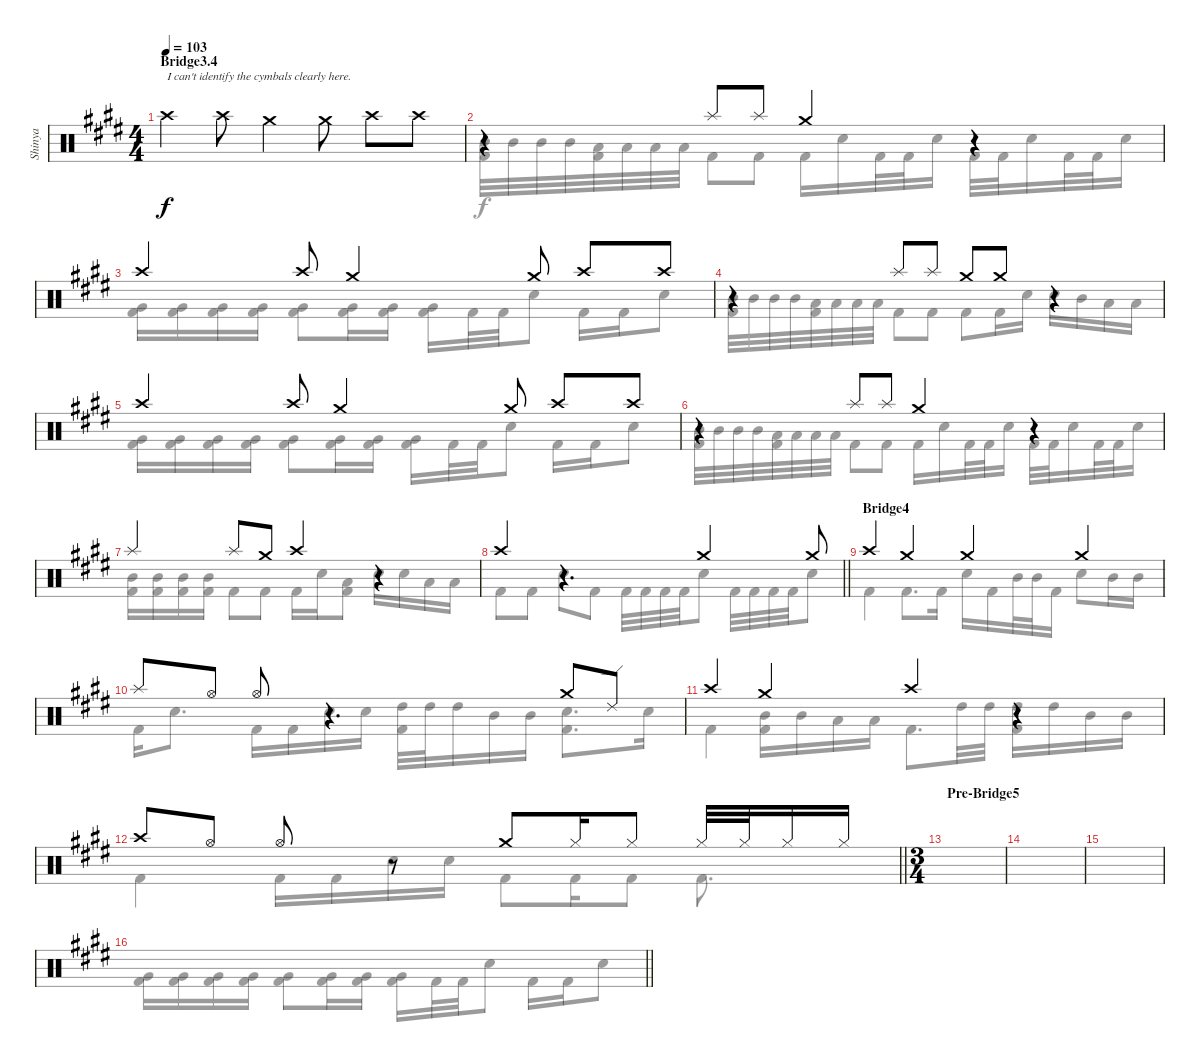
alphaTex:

\track ("Shinya" "Shinya") {instrument percussion}
\staff {score}
\articulation defaults
\voice
\ts (4 4)
\section ("" "Bridge3.4")
\tempo 103
\clef neutral
\ks c#minor "Crash high (hit)".4{txt "I can't identify the cymbals clearly here." dy f} "Crash high (hit)".8 "Crash medium (hit)".4 "Crash medium (hit)".8 "Crash high (hit)".8 "Crash high (hit)".8
|
r.4 "Splash (hit)".8 "Splash (hit)".8 "Crash medium (hit)".4 r.4 |
"Crash high (hit)".4 "Crash high (hit)".8 "Crash medium (hit)".4 "Crash medium (hit)".8 "Crash high (hit)".8 "Crash high (hit)".8 |
r.4 "Splash (hit)".8 "Splash (hit)".8 "Crash medium (hit)".8 "Crash medium (hit)".8 r.4 |
"Crash high (hit)".4 "Crash high (hit)".8 "Crash medium (hit)".4 "Crash medium (hit)".8 "Crash high (hit)".8 "Crash high (hit)".8 |
r.4 "Splash (hit)".8 "Splash (hit)".8 "Crash medium (hit)".4 r.4 |
"Splash (hit)".4 "Splash (hit)".8 "Crash medium (hit)".8 "Crash high (hit)".4 r.4 |
\barLineRight lightlight "Crash high (hit)".4
r.4{d} "Crash medium (hit)".4 "Crash medium (hit)".8 |
\section ("" "Bridge4")
"Crash high (hit)".4 "Crash medium (hit)".4 "Crash medium (hit)".4 "Crash medium (hit)".4 |
"Splash (hit)".8 "Hi-Hat (open)".8 "Hi-Hat (open)".8 r.4{d} "Crash medium (hit)".8 "Ride (edge) 2".8 |
"Crash high (hit)".4 "Crash medium (hit)".4 "Crash high (hit)".4 r.4 |
\barLineRight lightlight "Crash high (hit)".8 "Hi-Hat (open)".8 "Hi-Hat (open)".8
r.8 "Crash medium (hit)".8 "Hi-Hat (closed)".16 "Hi-Hat (closed)".8 "Hi-Hat (closed)".32 "Hi-Hat (closed)".32 "Hi-Hat (closed)".16 "Hi-Hat (closed)".16 |
\ts (3 4)
\section ("" "Pre-Bridge5")
|
|
|
\barLineRight lightlight
\voice
\clef neutral
\ottava regular
\simile none
\ks c#minor
("Very Low Tom (hit)" "Kick (hit) 2").16{dy f} ("Very Low Tom (hit)" "Kick (hit) 2").16 ("Very Low Tom (hit)" "Kick (hit) 2").16 ("Very Low Tom (hit)" "Kick (hit) 2").16 ("Very Low Tom (hit)" "Kick (hit) 2").8 ("Very Low Tom (hit)" "Kick (hit) 2").16 ("Very Low Tom (hit)" "Kick (hit) 2").16 ("Very Low Tom (hit)" "Kick (hit) 2").16 "Kick (hit) 2".32 "Kick (hit) 2".32 "Snare (hit) 2".8 "Kick (hit) 2".16 "Kick (hit) 2".16 "Snare (hit) 2".8 |
("Mid Tom (hit)" "Kick (hit) 2").32 "Mid Tom (hit)".32 "Mid Tom (hit)".32 "Mid Tom (hit)".32 ("Low Tom (hit)" "Kick (hit) 2").32 "Low Tom (hit)".32 "Low Tom (hit)".32 "Low Tom (hit)".32 "Kick (hit) 2".8 "Kick (hit) 2".8 "Kick (hit) 2".16 "Snare (hit) 2".16 "Kick (hit) 2".32 "Kick (hit) 2".32 "Snare (hit) 2".16 "Kick (hit) 2".32 "Kick (hit) 2".32 "Snare (hit) 2".16 "Kick (hit) 2".32 "Kick (hit) 2".32 "Snare (hit) 2".16 |
("Very Low Tom (hit)" "Kick (hit) 2").16 ("Very Low Tom (hit)" "Kick (hit) 2").16 ("Very Low Tom (hit)" "Kick (hit) 2").16 ("Very Low Tom (hit)" "Kick (hit) 2").16 ("Very Low Tom (hit)" "Kick (hit) 2").8 ("Very Low Tom (hit)" "Kick (hit) 2").16 ("Very Low Tom (hit)" "Kick (hit) 2").16 ("Very Low Tom (hit)" "Kick (hit) 2").16 "Kick (hit) 2".32 "Kick (hit) 2".32 "Snare (hit) 2".8 "Kick (hit) 2".16 "Kick (hit) 2".16 "Snare (hit) 2".8 |
("Mid Tom (hit)" "Kick (hit) 2").32 "Mid Tom (hit)".32 "Mid Tom (hit)".32 "Mid Tom (hit)".32 ("Low Tom (hit)" "Kick (hit) 2").32 "Low Tom (hit)".32 "Low Tom (hit)".32 "Low Tom (hit)".32 "Kick (hit) 2".8 "Kick (hit) 2".8 "Kick (hit) 2".8 "Kick (hit) 2".16 "Snare (hit) 2".16 "Snare (hit) 2".16 "Mid Tom (hit)".16 "Low Tom (hit)".16 "Low Tom (hit)".16 |
("Very Low Tom (hit)" "Kick (hit) 2").16 ("Very Low Tom (hit)" "Kick (hit) 2").16 ("Very Low Tom (hit)" "Kick (hit) 2").16 ("Very Low Tom (hit)" "Kick (hit) 2").16 ("Very Low Tom (hit)" "Kick (hit) 2").8 ("Very Low Tom (hit)" "Kick (hit) 2").16 ("Very Low Tom (hit)" "Kick (hit) 2").16 ("Very Low Tom (hit)" "Kick (hit) 2").16 "Kick (hit) 2".32 "Kick (hit) 2".32 "Snare (hit) 2".8 "Kick (hit) 2".16 "Kick (hit) 2".16 "Snare (hit) 2".8 |
("Mid Tom (hit)" "Kick (hit) 2").32 "Mid Tom (hit)".32 "Mid Tom (hit)".32 "Mid Tom (hit)".32 ("Low Tom (hit)" "Kick (hit) 2").32 "Low Tom (hit)".32 "Low Tom (hit)".32 "Low Tom (hit)".32 "Kick (hit) 2".8 "Kick (hit) 2".8 "Kick (hit) 2".16 "Snare (hit) 2".16 "Kick (hit) 2".32 "Kick (hit) 2".32 "Snare (hit) 2".16 "Kick (hit) 2".32 "Kick (hit) 2".32 "Snare (hit) 2".16 "Kick (hit) 2".32 "Kick (hit) 2".32 "Snare (hit) 2".16 |
("Mid Tom (hit)" "Kick (hit) 2").16 ("Mid Tom (hit)" "Kick (hit) 2").16 ("Mid Tom (hit)" "Kick (hit) 2").16 ("Mid Tom (hit)" "Kick (hit) 2").16 "Kick (hit) 2".8 "Kick (hit) 2".8 "Kick (hit) 2".16 "Snare (hit) 2".16 ("Low Tom (hit)" "Kick (hit) 2").8 "Snare (hit) 2".16 "Snare (hit) 2".16 "Low Tom (hit)".16 "Low Tom (hit)".16 |
\barLineRight lightlight "Kick (hit) 2".8 "Kick (hit) 2".8 "Snare (hit) 2".8 "Kick (hit) 2".8 "Kick (hit) 2".32 "Kick (hit) 2".32 "Kick (hit) 2".32 "Kick (hit) 2".32 "Snare (hit) 2".8 "Kick (hit) 2".32 "Kick (hit) 2".32 "Kick (hit) 2".32 "Kick (hit) 2".32 "Snare (hit) 2".8
|
"Kick (hit) 2".4 "Kick (hit) 2".8{d} "Kick (hit) 2".16 "Snare (hit) 2".16 "Kick (hit) 2".16 "Mid Tom (hit)".32 "Mid Tom (hit)".32 "Kick (hit) 2".16 "Snare (hit) 2".8 "Mid Tom (hit)".16 "Mid Tom (hit)".16 |
"Kick (hit) 2".16 "Snare (hit) 2".8{d} "Kick (hit) 2".16 "Kick (hit) 2".16 "Snare (hit) 2".16 "Snare (hit) 2".16 ("High Tom (hit)" "Kick (hit) 2").32 "High Tom (hit)".32 "High Tom (hit)".16 "Mid Tom (hit)".16 "Mid Tom (hit)".16 ("Snare (hit) 2" "Kick (hit) 2").8{d} "Snare (hit) 2".16 |
"Kick (hit) 2".4 ("Mid Tom (hit)" "Kick (hit) 2").16 "Mid Tom (hit)".16 "Low Tom (hit)".16 "Low Tom (hit)".16 "Kick (hit) 2".8{d} "High Tom (hit)".32 "High Tom (hit)".32 ("High Tom (hit)" "Kick (hit) 2").16 "High Tom (hit)".16 "Mid Tom (hit)".16 "Mid Tom (hit)".16 |
\barLineRight lightlight "Kick (hit) 2".4 "Kick (hit) 2".16 "Kick (hit) 2".16 "Snare (hit) 2".16 "Snare (hit) 2".16 "Kick (hit) 2".8 "Kick (hit) 2".16 "Kick (hit) 2".8 "Kick (hit) 2".8{d}
|
|
|
|
\barLineRight lightlight
